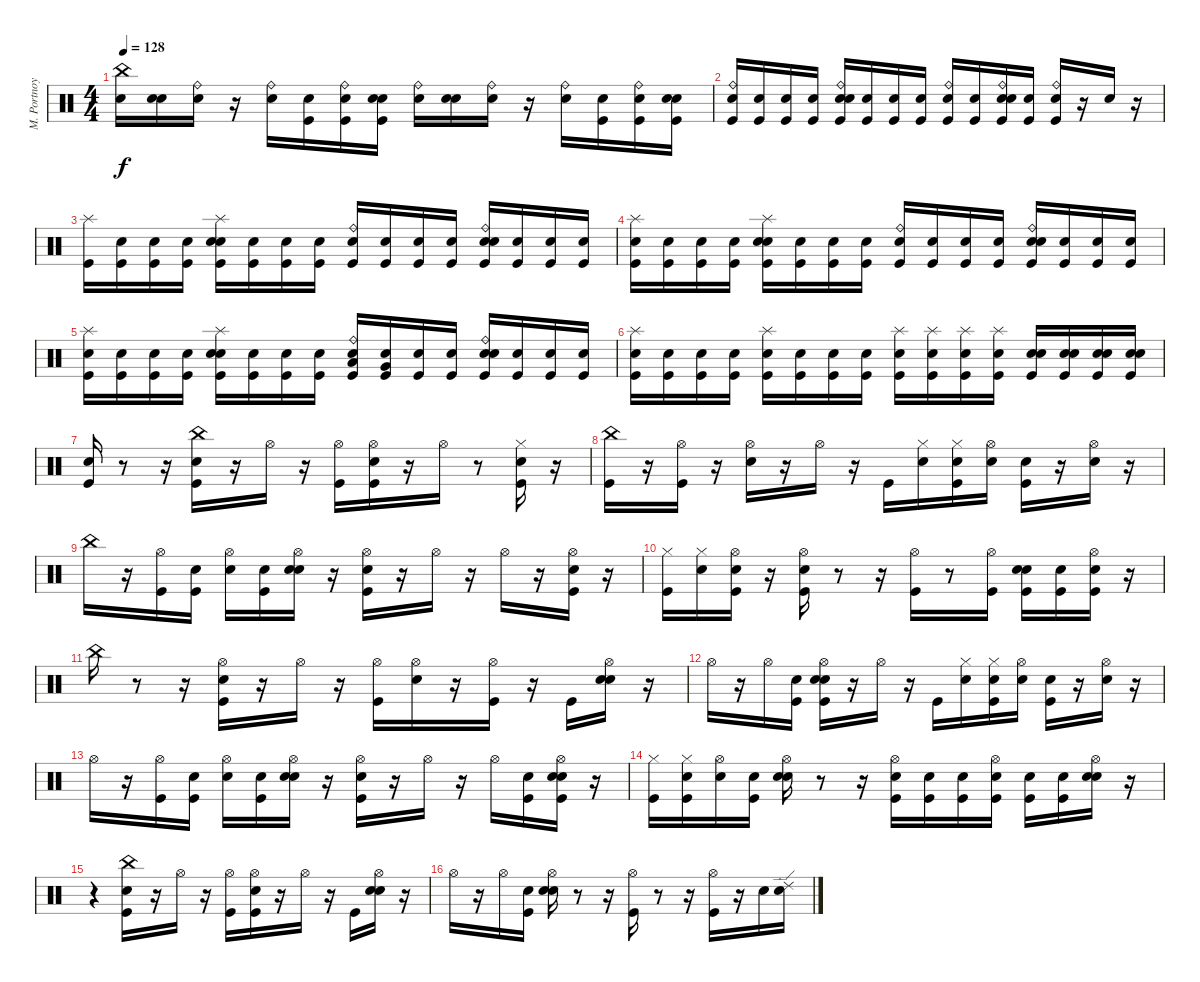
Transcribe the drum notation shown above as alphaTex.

\track ("M. Portnoy" "M. Portnoy") {instrument percussion}
\staff {score}
\articulation defaults
\ts (4 4)
\tempo 128
\clef neutral
\ks c
("Snare (hit)" "China (hit)").16{dy f} ("Snare (hit)" "Snare (hit) 2").16 ("Snare (hit)" "Ride (bell)").16 r.16 ("Snare (hit) 2" "Ride (bell)").16 ("Snare (hit)" "Kick (hit)").16 ("Snare (hit)" "Kick (hit)" "Ride (bell)").16 ("Snare (hit)" "Kick (hit)" "Snare (hit) 2").16 ("Snare (hit)" "Ride (bell)").16 ("Snare (hit)" "Snare (hit) 2").16 ("Snare (hit)" "Ride (bell)").16 r.16 ("Snare (hit) 2" "Ride (bell)").16 ("Snare (hit)" "Kick (hit)").16 ("Snare (hit)" "Kick (hit)" "Ride (bell)").16 ("Snare (hit)" "Kick (hit)" "Snare (hit) 2").16 |
("Snare (hit)" "Kick (hit)" "Ride (bell)").16 ("Snare (hit)" "Kick (hit)").16 ("Snare (hit)" "Kick (hit)").16 ("Snare (hit)" "Kick (hit)").16 ("Snare (hit)" "Kick (hit)" "Snare (hit) 2" "Ride (bell)").16 ("Snare (hit)" "Kick (hit)").16 ("Snare (hit)" "Kick (hit)").16 ("Snare (hit)" "Kick (hit)").16 ("Snare (hit)" "Kick (hit)" "Ride (bell)").16 ("Snare (hit)" "Kick (hit)").16 ("Snare (hit)" "Kick (hit)" "Snare (hit) 2" "Ride (bell)").16 ("Snare (hit)" "Kick (hit)").16 ("Snare (hit)" "Kick (hit)" "Ride (bell)").16 r.16 "Snare (hit) 2".16 r.16 |
("Kick (hit)" "Splash (hit)").16 ("Snare (hit)" "Kick (hit)").16 ("Snare (hit)" "Kick (hit)").16 ("Snare (hit)" "Kick (hit)").16 ("Snare (hit)" "Kick (hit)" "Snare (hit) 2" "Splash (hit)").16 ("Snare (hit)" "Kick (hit)").16 ("Snare (hit)" "Kick (hit)").16 ("Snare (hit)" "Kick (hit)").16 ("Snare (hit)" "Kick (hit)" "Ride (bell)").16 ("Snare (hit)" "Kick (hit)").16 ("Snare (hit)" "Kick (hit)").16 ("Snare (hit)" "Kick (hit)").16 ("Snare (hit)" "Kick (hit)" "Snare (hit) 2" "Ride (bell)").16 ("Snare (hit)" "Kick (hit)").16 ("Snare (hit)" "Kick (hit)").16 ("Snare (hit)" "Kick (hit)").16 |
("Snare (hit)" "Kick (hit)" "Splash (hit)").16 ("Snare (hit)" "Kick (hit)").16 ("Snare (hit)" "Kick (hit)").16 ("Snare (hit)" "Kick (hit)").16 ("Snare (hit)" "Kick (hit)" "Snare (hit) 2" "Splash (hit)").16 ("Snare (hit)" "Kick (hit)").16 ("Snare (hit)" "Kick (hit)").16 ("Snare (hit)" "Kick (hit)").16 ("Snare (hit)" "Kick (hit)" "Ride (bell)").16 ("Snare (hit)" "Kick (hit)").16 ("Snare (hit)" "Kick (hit)").16 ("Snare (hit)" "Kick (hit)").16 ("Snare (hit)" "Kick (hit)" "Snare (hit) 2" "Ride (bell)").16 ("Snare (hit)" "Kick (hit)").16 ("Snare (hit)" "Kick (hit)").16 ("Snare (hit)" "Kick (hit)").16 |
("Snare (hit)" "Kick (hit)" "Splash (hit)").16 ("Snare (hit)" "Kick (hit)").16 ("Snare (hit)" "Kick (hit)").16 ("Snare (hit)" "Kick (hit)").16 ("Snare (hit)" "Kick (hit)" "Snare (hit) 2" "Splash (hit)").16 ("Snare (hit)" "Kick (hit)").16 ("Snare (hit)" "Kick (hit)").16 ("Snare (hit)" "Kick (hit)").16 ("Snare (hit)" "Kick (hit)" "Low Tom (hit)" "Ride (bell)").16 ("Snare (hit)" "Kick (hit)" "Very Low Tom (hit)").16 ("Snare (hit)" "Kick (hit)").16 ("Snare (hit)" "Kick (hit)").16 ("Snare (hit)" "Kick (hit)" "Snare (hit) 2" "Ride (bell)").16 ("Snare (hit)" "Kick (hit)").16 ("Snare (hit)" "Kick (hit)").16 ("Snare (hit)" "Kick (hit)").16 |
("Snare (hit)" "Kick (hit)" "Splash (hit)").16 ("Snare (hit)" "Kick (hit)").16 ("Snare (hit)" "Kick (hit)").16 ("Snare (hit)" "Kick (hit)").16 ("Snare (hit)" "Kick (hit)" "Splash (hit)").16 ("Snare (hit)" "Kick (hit)").16 ("Snare (hit)" "Kick (hit)").16 ("Snare (hit)" "Kick (hit)").16 ("Snare (hit)" "Kick (hit)" "Splash (hit)").16 ("Snare (hit)" "Kick (hit)" "Splash (hit)").16 ("Snare (hit)" "Kick (hit)" "Splash (hit)").16 ("Snare (hit)" "Kick (hit)" "Splash (hit)").16 ("Snare (hit)" "Kick (hit)" "Snare (hit) 2").16 ("Snare (hit)" "Kick (hit)" "Snare (hit) 2").16 ("Snare (hit)" "Kick (hit)" "Snare (hit) 2").16 ("Snare (hit)" "Kick (hit)" "Snare (hit) 2").16 |
("Snare (hit)" "Kick (hit)").16 r.8 r.16 ("Kick (hit)" "Snare (hit) 2" "China (hit)").16 r.16 "Hi-Hat (open)".16 r.16 ("Kick (hit)" "Hi-Hat (open)").16 ("Snare (hit)" "Kick (hit)" "Hi-Hat (open)").16 r.16 "Hi-Hat (open)".16 r.8 ("Kick (hit)" "Snare (hit) 2" "Hi-Hat (closed)").16 r.16 |
("Kick (hit)" "China (hit)").16 r.16 ("Kick (hit)" "Hi-Hat (open)").16 r.16 ("Snare (hit) 2" "Hi-Hat (open)").16 r.16 "Hi-Hat (open)".16 r.16 "Kick (hit)".16 ("Snare (hit)" "Hi-Hat (closed)").16 ("Snare (hit)" "Kick (hit)" "Hi-Hat (closed)").16 ("Snare (hit)" "Hi-Hat (open)").16 ("Snare (hit)" "Kick (hit)").16 r.16 ("Snare (hit) 2" "Hi-Hat (open)").16 r.16 |
"China (hit)".16 r.16 ("Kick (hit)" "Hi-Hat (open)").16 ("Snare (hit)" "Kick (hit)").16 ("Snare (hit)" "Hi-Hat (open)").16 ("Snare (hit)" "Kick (hit)").16 ("Snare (hit)" "Snare (hit) 2" "Hi-Hat (open)").16 r.16 ("Kick (hit)" "Snare (hit) 2" "Hi-Hat (open)").16 r.16 "Hi-Hat (open)".16 r.16 "Hi-Hat (open)".16 r.16 ("Kick (hit)" "Snare (hit) 2" "Hi-Hat (open)").16 r.16 |
("Kick (hit)" "Hi-Hat (closed)").16 ("Snare (hit)" "Hi-Hat (closed)").16 ("Snare (hit)" "Kick (hit)" "Hi-Hat (open)").16 r.16 ("Kick (hit)" "Snare (hit) 2" "Hi-Hat (open)").16 r.8 r.16 ("Kick (hit)" "Hi-Hat (open)").16 r.8 ("Kick (hit)" "Hi-Hat (open)").16 ("Snare (hit)" "Kick (hit)" "Snare (hit) 2").16 ("Snare (hit)" "Kick (hit)").16 ("Snare (hit)" "Kick (hit)" "Hi-Hat (open)").16 r.16 |
"China (hit)".16 r.8 r.16 ("Kick (hit)" "Snare (hit) 2" "Hi-Hat (open)").16 r.16 "Hi-Hat (open)".16 r.16 ("Kick (hit)" "Hi-Hat (open)").16 ("Snare (hit)" "Hi-Hat (open)").16 r.16 ("Kick (hit)" "Hi-Hat (open)").16 r.16 "Kick (hit)".16 ("Snare (hit)" "Snare (hit) 2" "Hi-Hat (open)").16 r.16 |
"Hi-Hat (open)".16 r.16 "Hi-Hat (open)".16 ("Snare (hit)" "Kick (hit)").16 ("Snare (hit)" "Kick (hit)" "Snare (hit) 2" "Hi-Hat (open)").16 r.16 "Hi-Hat (open)".16 r.16 "Kick (hit)".16 ("Snare (hit)" "Hi-Hat (closed)").16 ("Snare (hit)" "Kick (hit)" "Hi-Hat (closed)").16 ("Snare (hit)" "Hi-Hat (open)").16 ("Snare (hit)" "Kick (hit)").16 r.16 ("Snare (hit) 2" "Hi-Hat (open)").16 r.16 |
"Hi-Hat (open)".16 r.16 ("Kick (hit)" "Hi-Hat (open)").16 ("Snare (hit)" "Kick (hit)").16 ("Snare (hit)" "Hi-Hat (open)").16 ("Snare (hit)" "Kick (hit)").16 ("Snare (hit)" "Snare (hit) 2" "Hi-Hat (open)").16 r.16 ("Kick (hit)" "Snare (hit) 2" "Hi-Hat (open)").16 r.16 "Hi-Hat (open)".16 r.16 "Hi-Hat (open)".16 ("Snare (hit)" "Kick (hit)").16 ("Snare (hit)" "Kick (hit)" "Snare (hit) 2" "Hi-Hat (open)").16 r.16 |
("Kick (hit)" "Hi-Hat (closed)").16 ("Snare (hit)" "Kick (hit)" "Hi-Hat (closed)").16 ("Snare (hit)" "Hi-Hat (open)").16 ("Snare (hit)" "Kick (hit)").16 ("Snare (hit)" "Snare (hit) 2" "Hi-Hat (open)").16 r.8 r.16 ("Kick (hit)" "Snare (hit) 2" "Hi-Hat (open)").16 ("Snare (hit)" "Kick (hit)").16 ("Snare (hit)" "Kick (hit)").16 ("Snare (hit)" "Kick (hit)" "Hi-Hat (open)").16 ("Snare (hit)" "Kick (hit)").16 ("Snare (hit)" "Kick (hit)").16 ("Snare (hit)" "Snare (hit) 2" "Hi-Hat (open)").16 r.16 |
r.4 ("Kick (hit)" "Snare (hit) 2" "China (hit)").16 r.16 "Hi-Hat (open)".16 r.16 ("Kick (hit)" "Hi-Hat (open)").16 ("Snare (hit)" "Kick (hit)" "Hi-Hat (open)").16 r.16 "Hi-Hat (open)".16 r.16 "Kick (hit)".16 ("Snare (hit)" "Snare (hit) 2" "Hi-Hat (open)").16 r.16 |
"Hi-Hat (open)".16 r.16 "Hi-Hat (open)".16 ("Snare (hit)" "Kick (hit)").16 ("Snare (hit)" "Snare (hit) 2" "Hi-Hat (open)").16 r.8 r.16 ("Kick (hit)" "Hi-Hat (open)").16 r.8 r.16 ("Kick (hit)" "Hi-Hat (open)").16 r.16 "Snare (hit) 2".16 ("Snare (hit)" "Ride (edge) 2").16
